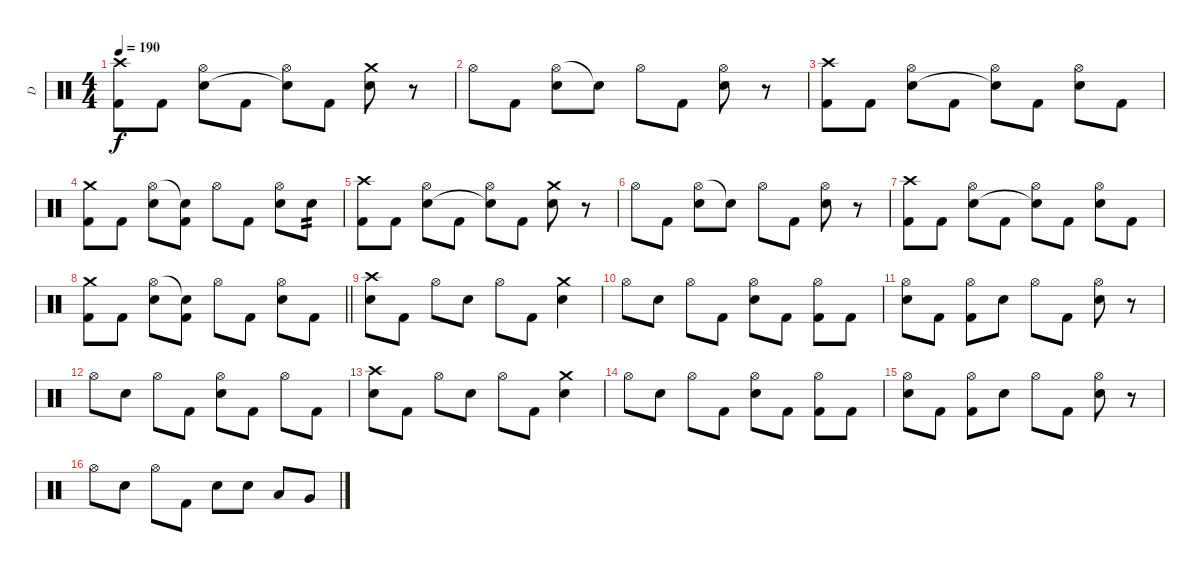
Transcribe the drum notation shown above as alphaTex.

\track ("D" "D") {instrument percussion}
\staff {score}
\articulation defaults
\ts (4 4)
\tempo 190
\clef neutral
\ks c
("Crash high (hit)" "Kick (hit) 2").8{dy f} "Kick (hit) 2".8 ("Hi-Hat (open)" "Electric Snare (hit)").8 "Kick (hit) 2".8 ("Hi-Hat (open)" "Snare (hit)"{t}).8 "Kick (hit) 2".8 ("Crash medium (hit)" "Electric Snare (hit)").8 r.8 |
"Hi-Hat (open)".8 "Kick (hit) 2".8 ("Hi-Hat (open)" "Electric Snare (hit)").8 "Snare (hit)"{t}.8 "Hi-Hat (open)".8 "Kick (hit) 2".8 ("Hi-Hat (open)" "Electric Snare (hit)").8 r.8 |
("Crash high (hit)" "Kick (hit) 2").8 "Kick (hit) 2".8 ("Hi-Hat (open)" "Electric Snare (hit)").8 "Kick (hit) 2".8 ("Hi-Hat (open)" "Snare (hit)"{t}).8 "Kick (hit) 2".8 ("Hi-Hat (open)" "Electric Snare (hit)").8 "Kick (hit) 2".8 |
("Crash medium (hit)" "Kick (hit) 2").8 "Kick (hit) 2".8 ("Hi-Hat (open)" "Electric Snare (hit)").8 ("Snare (hit)"{t} "Kick (hit) 2").8 "Hi-Hat (open)".8 "Kick (hit) 2".8 ("Hi-Hat (open)" "Electric Snare (hit)").8 "Electric Snare (hit)".8{tp 2} |
("Crash high (hit)" "Kick (hit) 2").8 "Kick (hit) 2".8 ("Hi-Hat (open)" "Electric Snare (hit)").8 "Kick (hit) 2".8 ("Hi-Hat (open)" "Snare (hit)"{t}).8 "Kick (hit) 2".8 ("Crash medium (hit)" "Electric Snare (hit)").8 r.8 |
"Hi-Hat (open)".8 "Kick (hit) 2".8 ("Hi-Hat (open)" "Electric Snare (hit)").8 "Snare (hit)"{t}.8 "Hi-Hat (open)".8 "Kick (hit) 2".8 ("Hi-Hat (open)" "Electric Snare (hit)").8 r.8 |
("Crash high (hit)" "Kick (hit) 2").8 "Kick (hit) 2".8 ("Hi-Hat (open)" "Electric Snare (hit)").8 "Kick (hit) 2".8 ("Hi-Hat (open)" "Snare (hit)"{t}).8 "Kick (hit) 2".8 ("Hi-Hat (open)" "Electric Snare (hit)").8 "Kick (hit) 2".8 |
\barLineRight lightlight
("Crash medium (hit)" "Kick (hit) 2").8 "Kick (hit) 2".8 ("Hi-Hat (open)" "Electric Snare (hit)").8 ("Snare (hit)"{t} "Kick (hit) 2").8 "Hi-Hat (open)".8 "Kick (hit) 2".8 ("Hi-Hat (open)" "Electric Snare (hit)").8 "Kick (hit) 2".8 |
\section ("" "")
("Crash high (hit)" "Electric Snare (hit)").8 "Kick (hit) 2".8 "Hi-Hat (open)".8 "Electric Snare (hit)".8 "Hi-Hat (open)".8 "Kick (hit) 2".8 ("Crash medium (hit)" "Electric Snare (hit)").4 |
"Hi-Hat (open)".8 "Electric Snare (hit)".8 "Hi-Hat (open)".8 "Kick (hit) 2".8 ("Hi-Hat (open)" "Electric Snare (hit)").8 "Kick (hit) 2".8 ("Hi-Hat (open)" "Kick (hit) 2").8 "Kick (hit) 2".8 |
("Hi-Hat (open)" "Electric Snare (hit)").8 "Kick (hit) 2".8 ("Hi-Hat (open)" "Kick (hit) 2").8 "Electric Snare (hit)".8 "Hi-Hat (open)".8 "Kick (hit) 2".8 ("Hi-Hat (open)" "Electric Snare (hit)").8 r.8 |
"Hi-Hat (open)".8 "Electric Snare (hit)".8 "Hi-Hat (open)".8 "Kick (hit) 2".8 ("Hi-Hat (open)" "Electric Snare (hit)").8 "Kick (hit) 2".8 "Hi-Hat (open)".8 "Kick (hit) 2".8 |
("Crash high (hit)" "Electric Snare (hit)").8 "Kick (hit) 2".8 "Hi-Hat (open)".8 "Electric Snare (hit)".8 "Hi-Hat (open)".8 "Kick (hit) 2".8 ("Crash medium (hit)" "Electric Snare (hit)").4 |
"Hi-Hat (open)".8 "Electric Snare (hit)".8 "Hi-Hat (open)".8 "Kick (hit) 2".8 ("Hi-Hat (open)" "Electric Snare (hit)").8 "Kick (hit) 2".8 ("Hi-Hat (open)" "Kick (hit) 2").8 "Kick (hit) 2".8 |
("Hi-Hat (open)" "Electric Snare (hit)").8 "Kick (hit) 2".8 ("Hi-Hat (open)" "Kick (hit) 2").8 "Electric Snare (hit)".8 "Hi-Hat (open)".8 "Kick (hit) 2".8 ("Hi-Hat (open)" "Electric Snare (hit)").8 r.8 |
"Hi-Hat (open)".8 "Electric Snare (hit)".8 "Hi-Hat (open)".8 "Kick (hit) 2".8 "Electric Snare (hit)".8 "Electric Snare (hit)".8 "Low Tom (hit)".8 "Very Low Tom (hit)".8
